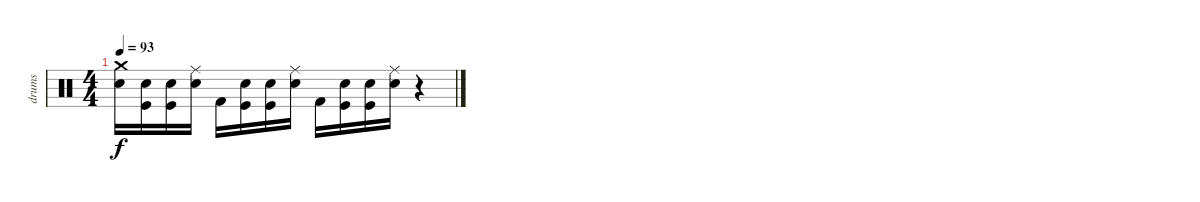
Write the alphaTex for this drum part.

\track ("drums" "drums") {instrument percussion}
\staff {score}
\articulation defaults
\ts (4 4)
\tempo 93
\clef neutral
\ks c
("Crash medium (hit)" "Electric Snare (hit)").16{dy f} ("Kick (hit)" "Snare (hit) 2").16 ("Kick (hit)" "Snare (hit) 2").16 ("Ride (middle)" "Electric Snare (hit)").16 "Kick (hit) 2".16 ("Kick (hit)" "Snare (hit) 2").16 ("Kick (hit)" "Snare (hit) 2").16 ("Ride (middle)" "Electric Snare (hit)").16 "Kick (hit) 2".16 ("Kick (hit)" "Snare (hit) 2").16 ("Kick (hit)" "Snare (hit) 2").16 ("Ride (middle)" "Electric Snare (hit)").16 r.4
